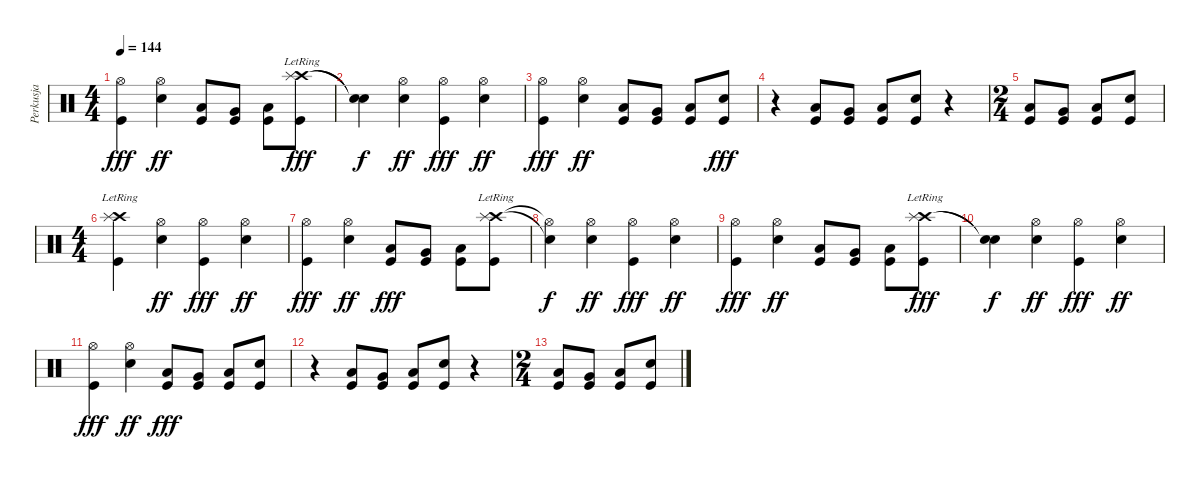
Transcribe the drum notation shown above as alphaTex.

\track ("Perkusja" "Perkusja") {instrument percussion}
\staff {score}
\articulation defaults
\ts (4 4)
\tempo 144
\clef neutral
\ks c
("Hi-Hat (open)" "Kick (hit)").4{dy fff} ("Hi-Hat (open)" "Electric Snare (hit)").4{dy ff} ("Low Tom (hit)" "Kick (hit)").8 ("Very Low Tom (hit)" "Kick (hit)").8 ("Low Floor Tom (hit)" "Kick (hit)").8 ("Crash high (hit)"{lr} "Splash (hit)"{lr} "Kick (hit)").8{dy fff} |
("Snare (hit)"{t} "Snare (hit)"{t}).4{dy f} ("Hi-Hat (open)" "Electric Snare (hit)").4{dy ff} ("Hi-Hat (open)" "Kick (hit)").4{dy fff} ("Hi-Hat (open)" "Electric Snare (hit)").4{dy ff} |
("Hi-Hat (open)" "Kick (hit)").4{dy fff} ("Hi-Hat (open)" "Electric Snare (hit)").4{dy ff} ("Low Tom (hit)" "Kick (hit)").8 ("Very Low Tom (hit)" "Kick (hit)").8 ("Low Floor Tom (hit)" "Kick (hit)").8 ("Electric Snare (hit)" "Kick (hit)").8{dy fff} |
r.4 ("Low Tom (hit)" "Kick (hit)").8 ("Very Low Tom (hit)" "Kick (hit)").8 ("Low Floor Tom (hit)" "Kick (hit)").8 ("Electric Snare (hit)" "Kick (hit)").8 r.4 |
\ts (2 4)
("Low Tom (hit)" "Kick (hit)").8 ("Very Low Tom (hit)" "Kick (hit)").8 ("Low Floor Tom (hit)" "Kick (hit)").8 ("Electric Snare (hit)" "Kick (hit)").8 |
\ts (4 4)
("Crash high (hit)"{lr} "Splash (hit)"{lr} "Kick (hit)").4 ("Hi-Hat (open)" "Electric Snare (hit)").4{dy ff} ("Hi-Hat (open)" "Kick (hit)").4{dy fff} ("Hi-Hat (open)" "Electric Snare (hit)").4{dy ff} |
("Hi-Hat (open)" "Kick (hit)").4{dy fff} ("Hi-Hat (open)" "Electric Snare (hit)").4{dy ff} ("Low Tom (hit)" "Kick (hit)").8{dy fff} ("Very Low Tom (hit)" "Kick (hit)").8 ("Low Floor Tom (hit)" "Kick (hit)").8 ("Crash high (hit)"{lr} "Splash (hit)"{lr} "Kick (hit)").8 |
("Snare (hit)"{t} "Hi-Hat (open)"{t}).4{dy f} ("Hi-Hat (open)" "Electric Snare (hit)").4{dy ff} ("Hi-Hat (open)" "Kick (hit)").4{dy fff} ("Hi-Hat (open)" "Electric Snare (hit)").4{dy ff} |
("Hi-Hat (open)" "Kick (hit)").4{dy fff} ("Hi-Hat (open)" "Electric Snare (hit)").4{dy ff} ("Low Tom (hit)" "Kick (hit)").8 ("Very Low Tom (hit)" "Kick (hit)").8 ("Low Floor Tom (hit)" "Kick (hit)").8 ("Crash high (hit)"{lr} "Splash (hit)"{lr} "Kick (hit)").8{dy fff} |
("Snare (hit)"{t} "Snare (hit)"{t}).4{dy f} ("Hi-Hat (open)" "Electric Snare (hit)").4{dy ff} ("Hi-Hat (open)" "Kick (hit)").4{dy fff} ("Hi-Hat (open)" "Electric Snare (hit)").4{dy ff} |
("Hi-Hat (open)" "Kick (hit)").4{dy fff} ("Hi-Hat (open)" "Electric Snare (hit)").4{dy ff} ("Low Tom (hit)" "Kick (hit)").8{dy fff} ("Very Low Tom (hit)" "Kick (hit)").8 ("Low Floor Tom (hit)" "Kick (hit)").8 ("Electric Snare (hit)" "Kick (hit)").8 |
r.4 ("Low Tom (hit)" "Kick (hit)").8 ("Very Low Tom (hit)" "Kick (hit)").8 ("Low Floor Tom (hit)" "Kick (hit)").8 ("Electric Snare (hit)" "Kick (hit)").8 r.4 |
\ts (2 4)
("Low Tom (hit)" "Kick (hit)").8 ("Very Low Tom (hit)" "Kick (hit)").8 ("Low Floor Tom (hit)" "Kick (hit)").8 ("Electric Snare (hit)" "Kick (hit)").8
